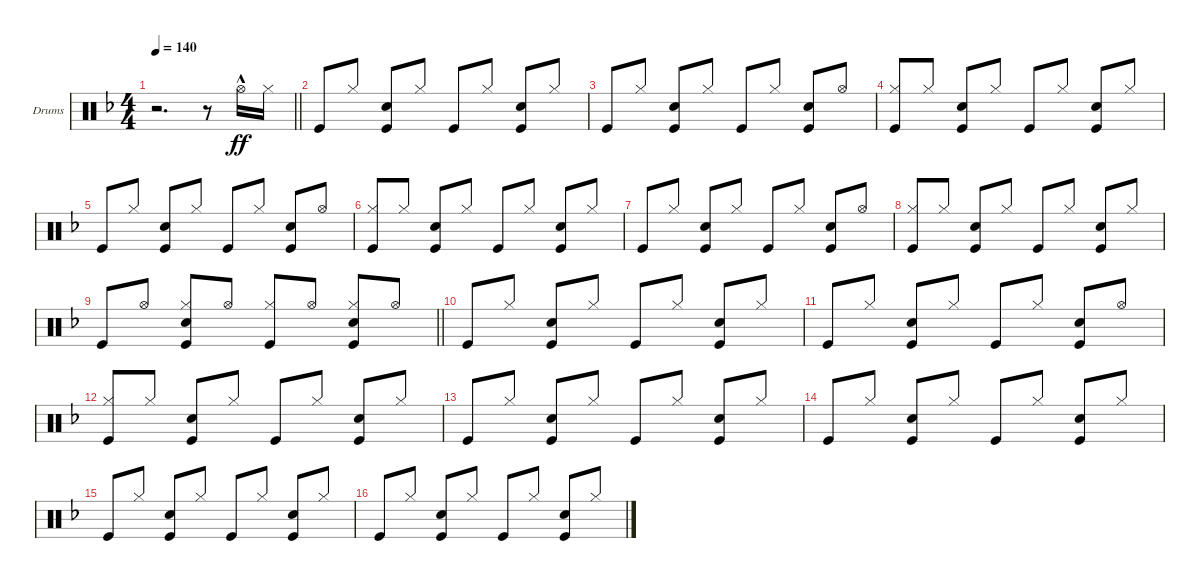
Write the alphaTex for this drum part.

\defaultSystemsLayout 4
\bracketExtendMode groupsimilarinstruments
\firstSystemTrackNameOrientation horizontal
\otherSystemsTrackNameOrientation horizontal
\track ("Drumkit" "Drums") {instrument percussion}
\staff {score}
\articulation defaults
\ts (4 4)
\tempo 140
\clef neutral
\barLineRight lightlight
\ks f
r.2{d dy ff} r.8 "Hi-Hat (open)"{hac}.16 "Hi-Hat (closed)".16 |
"Kick (hit)".8{beam invert} "Hi-Hat (closed)".8 ("Snare (hit) 2" "Kick (hit)").8{beam invert} "Hi-Hat (closed)".8 "Kick (hit)".8{beam invert} "Hi-Hat (closed)".8 ("Snare (hit) 2" "Kick (hit)").8{beam invert} "Hi-Hat (closed)".8 |
"Kick (hit)".8{beam invert} "Hi-Hat (closed)".8 ("Snare (hit) 2" "Kick (hit)").8{beam invert} "Hi-Hat (closed)".8 "Kick (hit)".8{beam invert} "Hi-Hat (closed)".8 ("Snare (hit) 2" "Kick (hit)").8{beam invert} "Hi-Hat (open)".8 |
("Kick (hit)" "Hi-Hat (closed)").8{beam invert} "Hi-Hat (closed)".8 ("Snare (hit) 2" "Kick (hit)").8{beam invert} "Hi-Hat (closed)".8 "Kick (hit)".8{beam invert} "Hi-Hat (closed)".8 ("Snare (hit) 2" "Kick (hit)").8{beam invert} "Hi-Hat (closed)".8 |
"Kick (hit)".8{beam invert} "Hi-Hat (closed)".8 ("Snare (hit) 2" "Kick (hit)").8{beam invert} "Hi-Hat (closed)".8 "Kick (hit)".8{beam invert} "Hi-Hat (closed)".8 ("Snare (hit) 2" "Kick (hit)").8{beam invert} "Hi-Hat (open)".8 |
("Kick (hit)" "Hi-Hat (closed)").8{beam invert} "Hi-Hat (closed)".8 ("Snare (hit) 2" "Kick (hit)").8{beam invert} "Hi-Hat (closed)".8 "Kick (hit)".8{beam invert} "Hi-Hat (closed)".8 ("Snare (hit) 2" "Kick (hit)").8{beam invert} "Hi-Hat (closed)".8 |
"Kick (hit)".8{beam invert} "Hi-Hat (closed)".8 ("Snare (hit) 2" "Kick (hit)").8{beam invert} "Hi-Hat (closed)".8 "Kick (hit)".8{beam invert} "Hi-Hat (closed)".8 ("Snare (hit) 2" "Kick (hit)").8{beam invert} "Hi-Hat (open)".8 |
("Kick (hit)" "Hi-Hat (closed)").8{beam invert} "Hi-Hat (closed)".8 ("Snare (hit) 2" "Kick (hit)").8{beam invert} "Hi-Hat (closed)".8 "Kick (hit)".8{beam invert} "Hi-Hat (closed)".8 ("Snare (hit) 2" "Kick (hit)").8{beam invert} "Hi-Hat (closed)".8 |
\barLineRight lightlight "Kick (hit)".8{beam invert} "Hi-Hat (open)".8
("Snare (hit) 2" "Hi-Hat (closed)" "Kick (hit)").8{beam invert} "Hi-Hat (open)".8 ("Kick (hit)" "Hi-Hat (closed)").8{beam invert} "Hi-Hat (open)".8 ("Snare (hit) 2" "Hi-Hat (closed)" "Kick (hit)").8{beam invert} "Hi-Hat (open)".8 |
"Kick (hit)".8{beam invert} "Hi-Hat (closed)".8 ("Snare (hit) 2" "Kick (hit)").8{beam invert} "Hi-Hat (closed)".8 "Kick (hit)".8{beam invert} "Hi-Hat (closed)".8 ("Snare (hit) 2" "Kick (hit)").8{beam invert} "Hi-Hat (closed)".8 |
"Kick (hit)".8{beam invert} "Hi-Hat (closed)".8 ("Snare (hit) 2" "Kick (hit)").8{beam invert} "Hi-Hat (closed)".8 "Kick (hit)".8{beam invert} "Hi-Hat (closed)".8 ("Snare (hit) 2" "Kick (hit)").8{beam invert} "Hi-Hat (open)".8 |
("Kick (hit)" "Hi-Hat (closed)").8{beam invert} "Hi-Hat (closed)".8 ("Snare (hit) 2" "Kick (hit)").8{beam invert} "Hi-Hat (closed)".8 "Kick (hit)".8{beam invert} "Hi-Hat (closed)".8 ("Snare (hit) 2" "Kick (hit)").8{beam invert} "Hi-Hat (closed)".8 |
"Kick (hit)".8{beam invert} "Hi-Hat (closed)".8 ("Snare (hit) 2" "Kick (hit)").8{beam invert} "Hi-Hat (closed)".8 "Kick (hit)".8{beam invert} "Hi-Hat (closed)".8 ("Snare (hit) 2" "Kick (hit)").8{beam invert} "Hi-Hat (closed)".8 |
"Kick (hit)".8{beam invert} "Hi-Hat (closed)".8 ("Snare (hit) 2" "Kick (hit)").8{beam invert} "Hi-Hat (closed)".8 "Kick (hit)".8{beam invert} "Hi-Hat (closed)".8 ("Snare (hit) 2" "Kick (hit)").8{beam invert} "Hi-Hat (closed)".8 |
"Kick (hit)".8{beam invert} "Hi-Hat (closed)".8 ("Snare (hit) 2" "Kick (hit)").8{beam invert} "Hi-Hat (closed)".8 "Kick (hit)".8{beam invert} "Hi-Hat (closed)".8 ("Snare (hit) 2" "Kick (hit)").8{beam invert} "Hi-Hat (closed)".8 |
"Kick (hit)".8{beam invert} "Hi-Hat (closed)".8 ("Snare (hit) 2" "Kick (hit)").8{beam invert} "Hi-Hat (closed)".8 "Kick (hit)".8{beam invert} "Hi-Hat (closed)".8 ("Snare (hit) 2" "Kick (hit)").8{beam invert} "Hi-Hat (closed)".8
